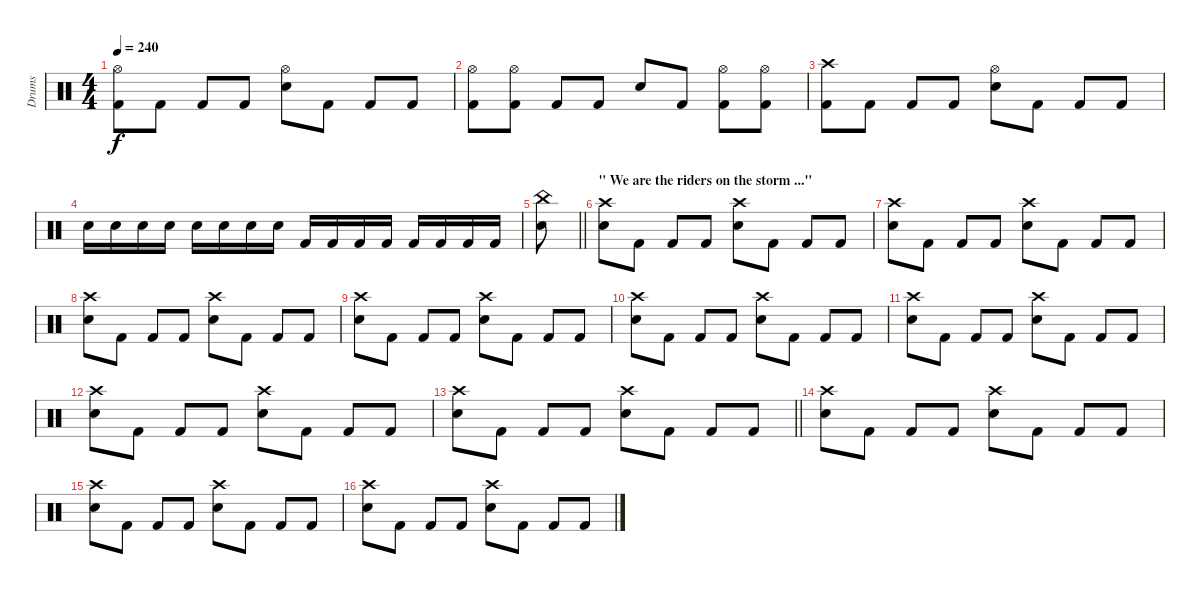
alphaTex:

\track ("Drums" "Drums") {instrument percussion}
\staff {score}
\articulation defaults
\ts (4 4)
\tempo 240
\clef neutral
\ks c
("Hi-Hat (open)" "Kick (hit) 2").8{dy f} "Kick (hit) 2".8 "Kick (hit) 2".8 "Kick (hit) 2".8 ("Hi-Hat (open)" "Electric Snare (hit)").8 "Kick (hit) 2".8 "Kick (hit) 2".8 "Kick (hit) 2".8 |
("Hi-Hat (open)" "Kick (hit) 2").8 ("Hi-Hat (open)" "Kick (hit) 2").8 "Kick (hit) 2".8 "Kick (hit) 2".8 "Electric Snare (hit)".8 "Kick (hit) 2".8 ("Hi-Hat (open)" "Kick (hit) 2").8 ("Hi-Hat (open)" "Kick (hit) 2").8 |
("Crash high (hit)" "Kick (hit) 2").8 "Kick (hit) 2".8 "Kick (hit) 2".8 "Kick (hit) 2".8 ("Hi-Hat (open)" "Electric Snare (hit)").8 "Kick (hit) 2".8 "Kick (hit) 2".8 "Kick (hit) 2".8 |
"Electric Snare (hit)".16 "Electric Snare (hit)".16 "Electric Snare (hit)".16 "Electric Snare (hit)".16 "Electric Snare (hit)".16 "Electric Snare (hit)".16 "Electric Snare (hit)".16 "Electric Snare (hit)".16 "Kick (hit) 2".16 "Kick (hit) 2".16 "Kick (hit) 2".16 "Kick (hit) 2".16 "Kick (hit) 2".16 "Kick (hit) 2".16 "Kick (hit) 2".16 "Kick (hit) 2".16 |
\barLineRight lightlight
("China (hit)" "Electric Snare (hit)").8 |
\section ("" "\" We are the riders on the storm ...\" ")
("Crash high (hit)" "Electric Snare (hit)").8 "Kick (hit) 2".8 "Kick (hit) 2".8 "Kick (hit) 2".8 ("Crash high (hit)" "Electric Snare (hit)").8 "Kick (hit) 2".8 "Kick (hit) 2".8 "Kick (hit) 2".8 |
("Crash high (hit)" "Electric Snare (hit)").8 "Kick (hit) 2".8 "Kick (hit) 2".8 "Kick (hit) 2".8 ("Crash high (hit)" "Electric Snare (hit)").8 "Kick (hit) 2".8 "Kick (hit) 2".8 "Kick (hit) 2".8 |
("Crash high (hit)" "Electric Snare (hit)").8 "Kick (hit) 2".8 "Kick (hit) 2".8 "Kick (hit) 2".8 ("Crash high (hit)" "Electric Snare (hit)").8 "Kick (hit) 2".8 "Kick (hit) 2".8 "Kick (hit) 2".8 |
("Crash high (hit)" "Electric Snare (hit)").8 "Kick (hit) 2".8 "Kick (hit) 2".8 "Kick (hit) 2".8 ("Crash high (hit)" "Electric Snare (hit)").8 "Kick (hit) 2".8 "Kick (hit) 2".8 "Kick (hit) 2".8 |
("Crash high (hit)" "Electric Snare (hit)").8 "Kick (hit) 2".8 "Kick (hit) 2".8 "Kick (hit) 2".8 ("Crash high (hit)" "Electric Snare (hit)").8 "Kick (hit) 2".8 "Kick (hit) 2".8 "Kick (hit) 2".8 |
("Crash high (hit)" "Electric Snare (hit)").8 "Kick (hit) 2".8 "Kick (hit) 2".8 "Kick (hit) 2".8 ("Crash high (hit)" "Electric Snare (hit)").8 "Kick (hit) 2".8 "Kick (hit) 2".8 "Kick (hit) 2".8 |
("Crash high (hit)" "Electric Snare (hit)").8 "Kick (hit) 2".8 "Kick (hit) 2".8 "Kick (hit) 2".8 ("Crash high (hit)" "Electric Snare (hit)").8 "Kick (hit) 2".8 "Kick (hit) 2".8 "Kick (hit) 2".8 |
\barLineRight lightlight
("Crash high (hit)" "Electric Snare (hit)").8 "Kick (hit) 2".8 "Kick (hit) 2".8 "Kick (hit) 2".8 ("Crash high (hit)" "Electric Snare (hit)").8 "Kick (hit) 2".8 "Kick (hit) 2".8 "Kick (hit) 2".8 |
("Crash high (hit)" "Electric Snare (hit)").8 "Kick (hit) 2".8 "Kick (hit) 2".8 "Kick (hit) 2".8 ("Crash high (hit)" "Electric Snare (hit)").8 "Kick (hit) 2".8 "Kick (hit) 2".8 "Kick (hit) 2".8 |
("Crash high (hit)" "Electric Snare (hit)").8 "Kick (hit) 2".8 "Kick (hit) 2".8 "Kick (hit) 2".8 ("Crash high (hit)" "Electric Snare (hit)").8 "Kick (hit) 2".8 "Kick (hit) 2".8 "Kick (hit) 2".8 |
("Crash high (hit)" "Electric Snare (hit)").8 "Kick (hit) 2".8 "Kick (hit) 2".8 "Kick (hit) 2".8 ("Crash high (hit)" "Electric Snare (hit)").8 "Kick (hit) 2".8 "Kick (hit) 2".8 "Kick (hit) 2".8
